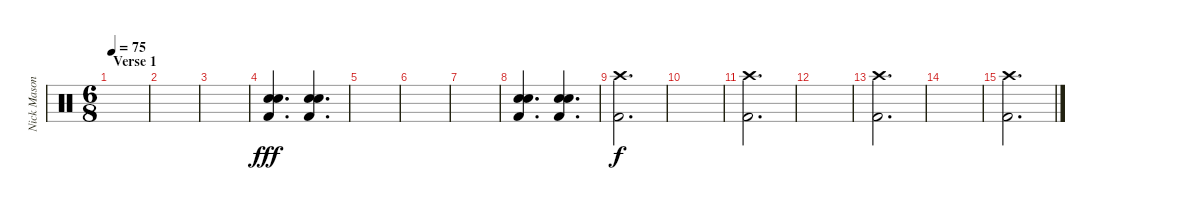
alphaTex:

\track ("Nick Mason (Drums)" "Nick Mason") {instrument percussion}
\staff {score}
\articulation defaults
\ts (6 8)
\section ("" "Verse 1")
\tempo 75
\clef neutral
\ks c
|
|
|
("Snare (hit) 2" "Snare (hit) 2" "Kick (hit) 2").4{d dy fff} ("Snare (hit) 2" "Snare (hit) 2" "Kick (hit) 2").4{d} |
|
|
|
("Snare (hit) 2" "Snare (hit) 2" "Kick (hit) 2").4{d} ("Snare (hit) 2" "Snare (hit) 2" "Kick (hit) 2").4{d} |
("Crash high (hit)" "Kick (hit) 2").2{d dy f} |
|
("Crash high (hit)" "Kick (hit) 2").2{d} |
|
("Crash high (hit)" "Kick (hit) 2").2{d} |
|
("Crash high (hit)" "Kick (hit) 2").2{d}
